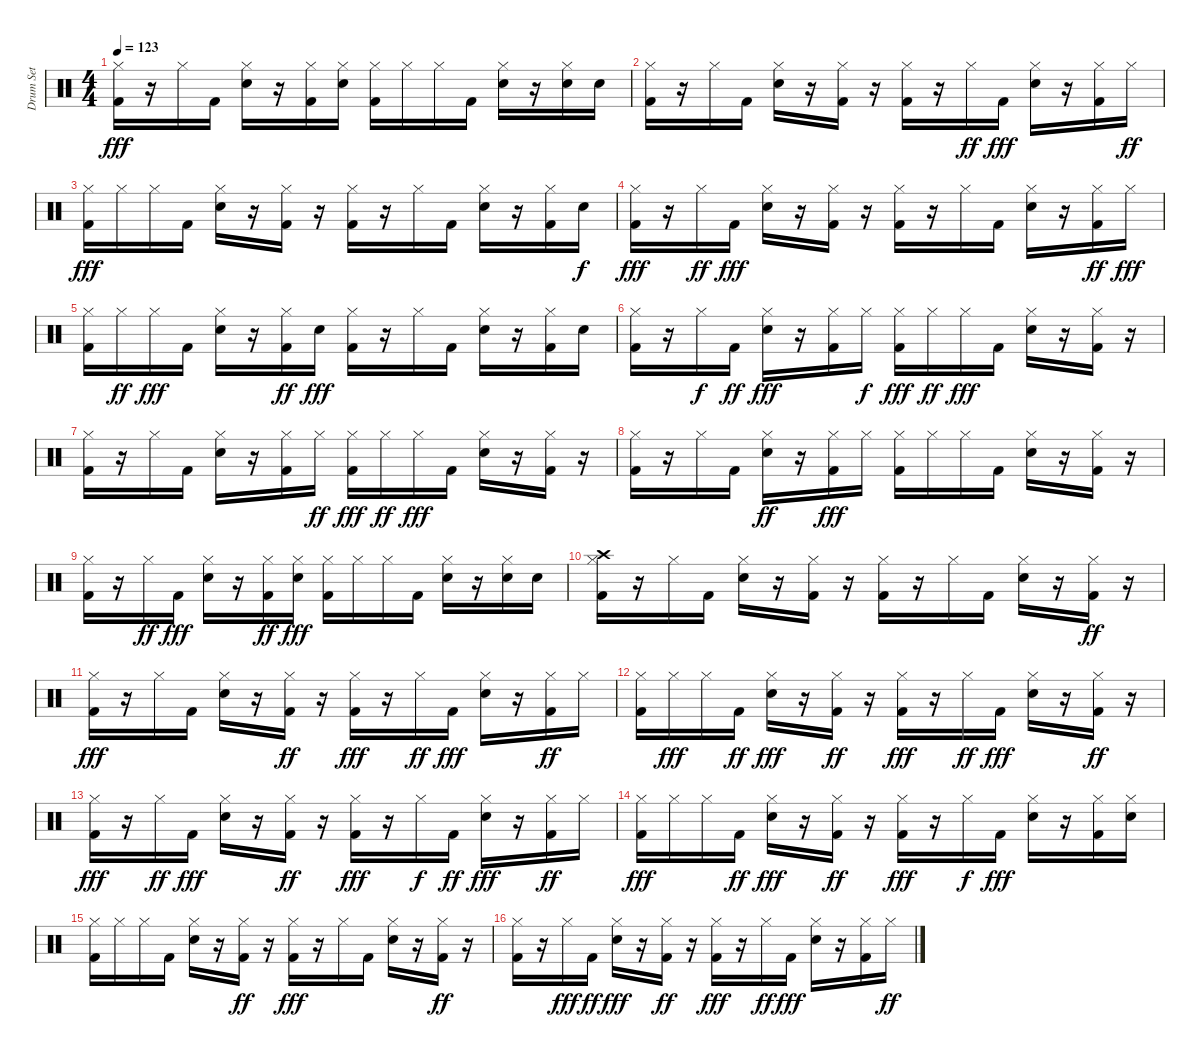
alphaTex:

\track ("Drum Set" "Drum Set") {instrument percussion}
\staff {score}
\articulation defaults
\ts (4 4)
\tempo 123
\clef neutral
\ks c
("Kick (hit) 2" "Hi-Hat (closed)").16{dy fff} r.16 "Hi-Hat (closed)".16 "Kick (hit) 2".16 ("Hi-Hat (closed)" "Snare (hit) 2").16 r.16 ("Hi-Hat (closed)" "Kick (hit) 2").16 ("Snare (hit) 2" "Hi-Hat (closed)").16 ("Hi-Hat (closed)" "Kick (hit) 2").16 "Hi-Hat (closed)".16 "Hi-Hat (closed)".16 "Kick (hit) 2".16 ("Hi-Hat (closed)" "Snare (hit) 2").16 r.16 ("Snare (hit) 2" "Hi-Hat (closed)").16 "Snare (hit) 2".16 |
("Kick (hit) 2" "Hi-Hat (closed)").16 r.16 "Hi-Hat (closed)".16 "Kick (hit) 2".16 ("Hi-Hat (closed)" "Snare (hit) 2").16 r.16 ("Hi-Hat (closed)" "Kick (hit) 2").16 r.16 ("Hi-Hat (closed)" "Kick (hit) 2").16 r.16 "Hi-Hat (closed)".16{dy ff} "Kick (hit) 2".16{dy fff} ("Hi-Hat (closed)" "Snare (hit) 2").16 r.16 ("Hi-Hat (closed)" "Kick (hit) 2").16 "Hi-Hat (closed)".16{dy ff} |
("Hi-Hat (closed)" "Kick (hit) 2").16{dy fff} "Hi-Hat (closed)".16 "Hi-Hat (closed)".16 "Kick (hit) 2".16 ("Snare (hit) 2" "Hi-Hat (closed)").16 r.16 ("Hi-Hat (closed)" "Kick (hit) 2").16 r.16 ("Hi-Hat (closed)" "Kick (hit) 2").16 r.16 "Hi-Hat (closed)".16 "Kick (hit) 2".16 ("Snare (hit) 2" "Hi-Hat (closed)").16 r.16 ("Kick (hit) 2" "Hi-Hat (closed)").16 "Snare (hit) 2".16{dy f} |
("Hi-Hat (closed)" "Kick (hit) 2").16{dy fff} r.16 "Hi-Hat (closed)".16{dy ff} "Kick (hit) 2".16{dy fff} ("Hi-Hat (closed)" "Snare (hit) 2").16 r.16 ("Hi-Hat (closed)" "Kick (hit) 2").16 r.16 ("Hi-Hat (closed)" "Kick (hit) 2").16 r.16 "Hi-Hat (closed)".16 "Kick (hit) 2".16 ("Hi-Hat (closed)" "Snare (hit) 2").16 r.16 ("Hi-Hat (closed)" "Kick (hit) 2").16{dy ff} "Hi-Hat (closed)".16{dy fff} |
("Hi-Hat (closed)" "Kick (hit) 2").16 "Hi-Hat (closed)".16{dy ff} "Hi-Hat (closed)".16{dy fff} "Kick (hit) 2".16 ("Snare (hit) 2" "Hi-Hat (closed)").16 r.16 ("Hi-Hat (closed)" "Kick (hit) 2").16{dy ff} "Snare (hit) 2".16{dy fff} ("Hi-Hat (closed)" "Kick (hit) 2").16 r.16 "Hi-Hat (closed)".16 "Kick (hit) 2".16 ("Hi-Hat (closed)" "Snare (hit) 2").16 r.16 ("Hi-Hat (closed)" "Kick (hit) 2").16 "Snare (hit) 2".16 |
("Kick (hit) 2" "Hi-Hat (closed)").16 r.16 "Hi-Hat (closed)".16{dy f} "Kick (hit) 2".16{dy ff} ("Snare (hit) 2" "Hi-Hat (closed)").16{dy fff} r.16 ("Kick (hit) 2" "Hi-Hat (closed)").16 "Hi-Hat (closed)".16{dy f} ("Kick (hit) 2" "Hi-Hat (closed)").16{dy fff} "Hi-Hat (closed)".16{dy ff} "Hi-Hat (closed)".16{dy fff} "Kick (hit) 2".16 ("Snare (hit) 2" "Hi-Hat (closed)").16 r.16 ("Kick (hit) 2" "Hi-Hat (closed)").16 r.16 |
("Kick (hit) 2" "Hi-Hat (closed)").16 r.16 "Hi-Hat (closed)".16 "Kick (hit) 2".16 ("Snare (hit) 2" "Hi-Hat (closed)").16 r.16 ("Kick (hit) 2" "Hi-Hat (closed)").16 "Hi-Hat (closed)".16{dy ff} ("Hi-Hat (closed)" "Kick (hit) 2").16{dy fff} "Hi-Hat (closed)".16{dy ff} "Hi-Hat (closed)".16{dy fff} "Kick (hit) 2".16 ("Snare (hit) 2" "Hi-Hat (closed)").16 r.16 ("Kick (hit) 2" "Hi-Hat (closed)").16 r.16 |
("Hi-Hat (closed)" "Kick (hit) 2").16 r.16 "Hi-Hat (closed)".16 "Kick (hit) 2".16 ("Hi-Hat (closed)" "Snare (hit) 2").16{dy ff} r.16 ("Kick (hit) 2" "Hi-Hat (closed)").16{dy fff} "Hi-Hat (closed)".16 ("Hi-Hat (closed)" "Kick (hit) 2").16 "Hi-Hat (closed)".16 "Hi-Hat (closed)".16 "Kick (hit) 2".16 ("Hi-Hat (closed)" "Snare (hit) 2").16 r.16 ("Hi-Hat (closed)" "Kick (hit) 2").16 r.16 |
("Hi-Hat (closed)" "Kick (hit) 2").16 r.16 "Hi-Hat (closed)".16{dy ff} "Kick (hit) 2".16{dy fff} ("Hi-Hat (closed)" "Snare (hit) 2").16 r.16 ("Hi-Hat (closed)" "Kick (hit) 2").16{dy ff} ("Hi-Hat (closed)" "Snare (hit) 2").16{dy fff} ("Hi-Hat (closed)" "Kick (hit) 2").16 "Hi-Hat (closed)".16 "Hi-Hat (closed)".16 "Kick (hit) 2".16 ("Hi-Hat (closed)" "Snare (hit) 2").16 r.16 ("Hi-Hat (closed)" "Snare (hit) 2").16 "Snare (hit) 2".16 |
("Crash high (hit)" "Kick (hit) 2" "Hi-Hat (closed)").16 r.16 "Hi-Hat (closed)".16 "Kick (hit) 2".16 ("Snare (hit) 2" "Hi-Hat (closed)").16 r.16 ("Kick (hit) 2" "Hi-Hat (closed)").16 r.16 ("Kick (hit) 2" "Hi-Hat (closed)").16 r.16 "Hi-Hat (closed)".16 "Kick (hit) 2".16 ("Hi-Hat (closed)" "Snare (hit) 2").16 r.16 ("Hi-Hat (closed)" "Kick (hit) 2").16{dy ff} r.16 |
("Kick (hit) 2" "Hi-Hat (closed)").16{dy fff} r.16 "Hi-Hat (closed)".16 "Kick (hit) 2".16 ("Snare (hit) 2" "Hi-Hat (closed)").16 r.16 ("Kick (hit) 2" "Hi-Hat (closed)").16{dy ff} r.16 ("Kick (hit) 2" "Hi-Hat (closed)").16{dy fff} r.16 "Hi-Hat (closed)".16{dy ff} "Kick (hit) 2".16{dy fff} ("Hi-Hat (closed)" "Snare (hit) 2").16 r.16 ("Kick (hit) 2" "Hi-Hat (closed)").16{dy ff} "Hi-Hat (closed)".16 |
("Hi-Hat (closed)" "Kick (hit) 2").16 "Hi-Hat (closed)".16{dy fff} "Hi-Hat (closed)".16 "Kick (hit) 2".16{dy ff} ("Snare (hit) 2" "Hi-Hat (closed)").16{dy fff} r.16 ("Hi-Hat (closed)" "Kick (hit) 2").16{dy ff} r.16 ("Hi-Hat (closed)" "Kick (hit) 2").16{dy fff} r.16 "Hi-Hat (closed)".16{dy ff} "Kick (hit) 2".16{dy fff} ("Snare (hit) 2" "Hi-Hat (closed)").16 r.16 ("Kick (hit) 2" "Hi-Hat (closed)").16{dy ff} r.16 |
("Hi-Hat (closed)" "Kick (hit) 2").16{dy fff} r.16 "Hi-Hat (closed)".16{dy ff} "Kick (hit) 2".16{dy fff} ("Snare (hit) 2" "Hi-Hat (closed)").16 r.16 ("Kick (hit) 2" "Hi-Hat (closed)").16{dy ff} r.16 ("Hi-Hat (closed)" "Kick (hit) 2").16{dy fff} r.16 "Hi-Hat (closed)".16{dy f} "Kick (hit) 2".16{dy ff} ("Hi-Hat (closed)" "Snare (hit) 2").16{dy fff} r.16 ("Kick (hit) 2" "Hi-Hat (closed)").16{dy ff} "Hi-Hat (closed)".16 |
("Hi-Hat (closed)" "Kick (hit) 2").16{dy fff} "Hi-Hat (closed)".16 "Hi-Hat (closed)".16 "Kick (hit) 2".16{dy ff} ("Snare (hit) 2" "Hi-Hat (closed)").16{dy fff} r.16 ("Hi-Hat (closed)" "Kick (hit) 2").16{dy ff} r.16 ("Hi-Hat (closed)" "Kick (hit) 2").16{dy fff} r.16 "Hi-Hat (closed)".16{dy f} "Kick (hit) 2".16{dy fff} ("Snare (hit) 2" "Hi-Hat (closed)").16 r.16 ("Kick (hit) 2" "Hi-Hat (closed)").16 ("Hi-Hat (closed)" "Snare (hit) 2").16 |
("Hi-Hat (closed)" "Kick (hit) 2").16 "Hi-Hat (closed)".16 "Hi-Hat (closed)".16 "Kick (hit) 2".16 ("Snare (hit) 2" "Hi-Hat (closed)").16 r.16 ("Kick (hit) 2" "Hi-Hat (closed)").16{dy ff} r.16 ("Kick (hit) 2" "Hi-Hat (closed)").16{dy fff} r.16 "Hi-Hat (closed)".16 "Kick (hit) 2".16 ("Snare (hit) 2" "Hi-Hat (closed)").16 r.16 ("Kick (hit) 2" "Hi-Hat (closed)").16{dy ff} r.16 |
("Hi-Hat (closed)" "Kick (hit) 2").16 r.16 "Hi-Hat (closed)".16{dy fff} "Kick (hit) 2".16{dy ff} ("Snare (hit) 2" "Hi-Hat (closed)").16{dy fff} r.16 ("Kick (hit) 2" "Hi-Hat (closed)").16{dy ff} r.16 ("Kick (hit) 2" "Hi-Hat (closed)").16{dy fff} r.16 "Hi-Hat (closed)".16{dy ff} "Kick (hit) 2".16{dy fff} ("Hi-Hat (closed)" "Snare (hit) 2").16 r.16 ("Kick (hit) 2" "Hi-Hat (closed)").16 "Hi-Hat (closed)".16{dy ff}
